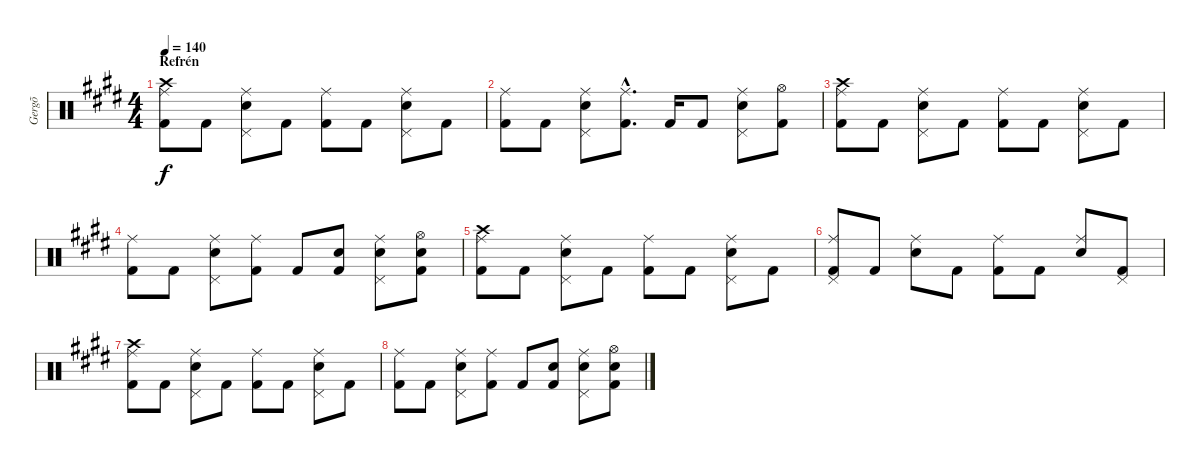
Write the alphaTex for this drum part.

\track ("Gergõ" "Gergõ") {instrument percussion}
\staff {score}
\articulation defaults
\ts (4 4)
\section ("" "Refrén")
\tempo 140
\clef neutral
\ks e
("Crash high (hit)" "Ride (middle)" "Kick (hit) 2").8{dy f} "Kick (hit) 2".8 ("Ride (middle)" "Pedal Hi-Hat (hit)" "Electric Snare (hit)").8 "Kick (hit) 2".8 ("Ride (middle)" "Kick (hit) 2").8 "Kick (hit) 2".8 ("Ride (middle)" "Pedal Hi-Hat (hit)" "Electric Snare (hit)").8 "Kick (hit) 2".8 |
("Ride (middle)" "Kick (hit) 2").8 "Kick (hit) 2".8 ("Ride (middle)" "Pedal Hi-Hat (hit)" "Electric Snare (hit)").8 ("Ride (middle)"{hac} "Kick (hit) 2"{hac}).8{d} "Kick (hit) 2".16 "Kick (hit) 2".8 ("Ride (middle)" "Pedal Hi-Hat (hit)" "Electric Snare (hit)").8 ("Hi-Hat (open)" "Kick (hit) 2").8 |
("Ride (middle)" "Crash high (hit)" "Kick (hit) 2").8 "Kick (hit) 2".8 ("Ride (middle)" "Pedal Hi-Hat (hit)" "Electric Snare (hit)").8 "Kick (hit) 2".8 ("Ride (middle)" "Kick (hit) 2").8 "Kick (hit) 2".8 ("Ride (middle)" "Pedal Hi-Hat (hit)" "Electric Snare (hit)").8 "Kick (hit) 2".8 |
("Ride (middle)" "Kick (hit) 2").8 "Kick (hit) 2".8 ("Ride (middle)" "Pedal Hi-Hat (hit)" "Electric Snare (hit)").8 ("Ride (middle)" "Kick (hit) 2").8 "Kick (hit) 2".8 ("Electric Snare (hit)" "Kick (hit) 2").8 ("Ride (middle)" "Pedal Hi-Hat (hit)" "Electric Snare (hit)").8 ("Hi-Hat (open)" "Electric Snare (hit)" "Kick (hit) 2").8 |
("Ride (middle)" "Crash high (hit)" "Kick (hit) 2").8 "Kick (hit) 2".8 ("Ride (middle)" "Pedal Hi-Hat (hit)" "Electric Snare (hit)").8 "Kick (hit) 2".8 ("Ride (middle)" "Kick (hit) 2").8 "Kick (hit) 2".8 ("Ride (middle)" "Pedal Hi-Hat (hit)" "Electric Snare (hit)").8 "Kick (hit) 2".8 |
("Ride (middle)" "Pedal Hi-Hat (hit)" "Kick (hit) 2").8 "Kick (hit) 2".8 ("Ride (middle)" "Electric Snare (hit)").8 "Kick (hit) 2".8 ("Ride (middle)" "Kick (hit) 2").8 "Kick (hit) 2".8 ("Ride (middle)" "Electric Snare (hit)").8 ("Pedal Hi-Hat (hit)" "Kick (hit) 2").8 |
("Ride (middle)" "Crash high (hit)" "Kick (hit) 2").8 "Kick (hit) 2".8 ("Ride (middle)" "Pedal Hi-Hat (hit)" "Electric Snare (hit)").8 "Kick (hit) 2".8 ("Ride (middle)" "Kick (hit) 2").8 "Kick (hit) 2".8 ("Ride (middle)" "Pedal Hi-Hat (hit)" "Electric Snare (hit)").8 "Kick (hit) 2".8 |
("Ride (middle)" "Kick (hit) 2").8 "Kick (hit) 2".8 ("Ride (middle)" "Pedal Hi-Hat (hit)" "Electric Snare (hit)").8 ("Ride (middle)" "Kick (hit) 2").8 "Kick (hit) 2".8 ("Electric Snare (hit)" "Kick (hit) 2").8 ("Ride (middle)" "Pedal Hi-Hat (hit)" "Electric Snare (hit)").8 ("Hi-Hat (open)" "Electric Snare (hit)" "Kick (hit) 2").8
